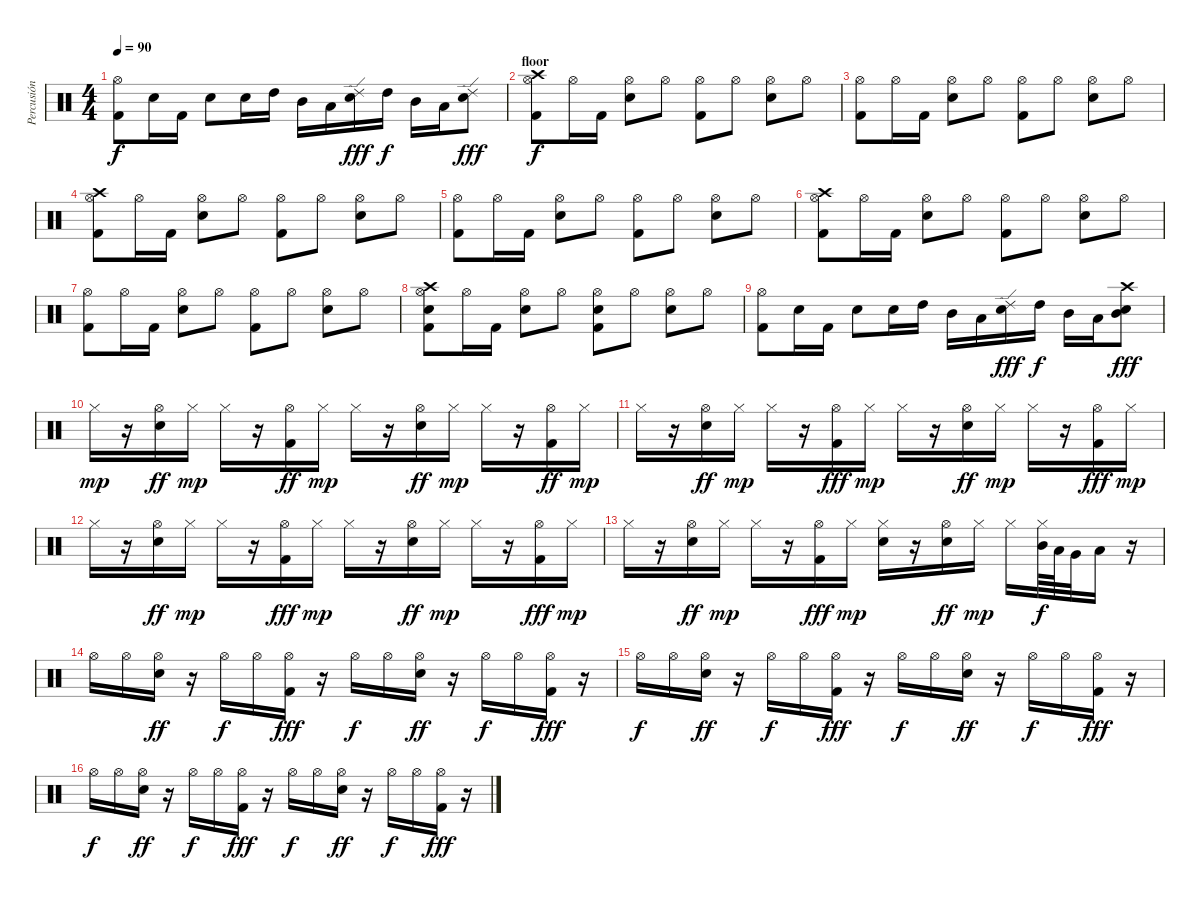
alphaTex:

\track ("Percusión" "Percusión") {instrument percussion}
\staff {score}
\articulation defaults
\ts (4 4)
\tempo 90
\clef neutral
\ks c
("Hi-Hat (open)" "Kick (hit) 2").8{dy f} "Electric Snare (hit)".16 "Kick (hit) 2".16 "Electric Snare (hit)".8 "Electric Snare (hit)".16 "High Tom (hit)".16 "Mid Tom (hit)".16 "Low Tom (hit)".16 ("Ride (edge) 2" "Electric Snare (hit)").16{dy fff} "High Tom (hit)".16{dy f} "Mid Tom (hit)".16 "Low Tom (hit)".16 ("Ride (edge) 2" "Electric Snare (hit)").8{dy fff} |
\section ("" "floor")
("Crash high (hit)" "Hi-Hat (open)" "Kick (hit) 2").8{dy f} "Hi-Hat (open)".16 "Kick (hit) 2".16 ("Hi-Hat (open)" "Electric Snare (hit)").8 "Hi-Hat (open)".8 ("Hi-Hat (open)" "Kick (hit) 2").8 "Hi-Hat (open)".8 ("Hi-Hat (open)" "Electric Snare (hit)").8 "Hi-Hat (open)".8 |
("Hi-Hat (open)" "Kick (hit) 2").8 "Hi-Hat (open)".16 "Kick (hit) 2".16 ("Hi-Hat (open)" "Electric Snare (hit)").8 "Hi-Hat (open)".8 ("Hi-Hat (open)" "Kick (hit) 2").8 "Hi-Hat (open)".8 ("Hi-Hat (open)" "Electric Snare (hit)").8 "Hi-Hat (open)".8 |
("Crash high (hit)" "Hi-Hat (open)" "Kick (hit) 2").8 "Hi-Hat (open)".16 "Kick (hit) 2".16 ("Hi-Hat (open)" "Electric Snare (hit)").8 "Hi-Hat (open)".8 ("Hi-Hat (open)" "Kick (hit) 2").8 "Hi-Hat (open)".8 ("Hi-Hat (open)" "Electric Snare (hit)").8 "Hi-Hat (open)".8 |
("Hi-Hat (open)" "Kick (hit) 2").8 "Hi-Hat (open)".16 "Kick (hit) 2".16 ("Hi-Hat (open)" "Electric Snare (hit)").8 "Hi-Hat (open)".8 ("Hi-Hat (open)" "Kick (hit) 2").8 "Hi-Hat (open)".8 ("Hi-Hat (open)" "Electric Snare (hit)").8 "Hi-Hat (open)".8 |
("Crash high (hit)" "Hi-Hat (open)" "Kick (hit) 2").8 "Hi-Hat (open)".16 "Kick (hit) 2".16 ("Hi-Hat (open)" "Electric Snare (hit)").8 "Hi-Hat (open)".8 ("Hi-Hat (open)" "Kick (hit) 2").8 "Hi-Hat (open)".8 ("Hi-Hat (open)" "Electric Snare (hit)").8 "Hi-Hat (open)".8 |
("Hi-Hat (open)" "Kick (hit) 2").8 "Hi-Hat (open)".16 "Kick (hit) 2".16 ("Hi-Hat (open)" "Electric Snare (hit)").8 "Hi-Hat (open)".8 ("Hi-Hat (open)" "Kick (hit) 2").8 "Hi-Hat (open)".8 ("Hi-Hat (open)" "Electric Snare (hit)").8 "Hi-Hat (open)".8 |
("Crash high (hit)" "Hi-Hat (open)" "Electric Snare (hit)" "Kick (hit) 2").8 "Hi-Hat (open)".16 "Kick (hit) 2".16 ("Hi-Hat (open)" "Electric Snare (hit)").8 "Hi-Hat (open)".8 ("Hi-Hat (open)" "Electric Snare (hit)" "Kick (hit) 2").8 "Hi-Hat (open)".8 ("Hi-Hat (open)" "Electric Snare (hit)").8 "Hi-Hat (open)".8 |
("Hi-Hat (open)" "Kick (hit) 2").8 "Electric Snare (hit)".16 "Kick (hit) 2".16 "Electric Snare (hit)".8 "Electric Snare (hit)".16 "High Tom (hit)".16 "Mid Tom (hit)".16 "Low Tom (hit)".16 ("Ride (edge) 2" "Electric Snare (hit)").16{dy fff} "High Tom (hit)".16{dy f} "Mid Tom (hit)".16 "Low Tom (hit)".16 ("Crash high (hit)" "Mid Tom (hit)" "Electric Snare (hit)").8{dy fff} |
"Hi-Hat (closed)".16{dy mp} r.16 ("Hi-Hat (open)" "Electric Snare (hit)").16{dy ff} "Hi-Hat (closed)".16{dy mp} "Hi-Hat (closed)".16 r.16 ("Hi-Hat (open)" "Kick (hit) 2").16{dy ff} "Hi-Hat (closed)".16{dy mp} "Hi-Hat (closed)".16 r.16 ("Hi-Hat (open)" "Electric Snare (hit)").16{dy ff} "Hi-Hat (closed)".16{dy mp} "Hi-Hat (closed)".16 r.16 ("Hi-Hat (open)" "Kick (hit) 2").16{dy ff} "Hi-Hat (closed)".16{dy mp} |
"Hi-Hat (closed)".16 r.16 ("Hi-Hat (open)" "Electric Snare (hit)").16{dy ff} "Hi-Hat (closed)".16{dy mp} "Hi-Hat (closed)".16 r.16 ("Hi-Hat (open)" "Kick (hit) 2").16{dy fff} "Hi-Hat (closed)".16{dy mp} "Hi-Hat (closed)".16 r.16 ("Hi-Hat (open)" "Electric Snare (hit)").16{dy ff} "Hi-Hat (closed)".16{dy mp} "Hi-Hat (closed)".16 r.16 ("Hi-Hat (open)" "Kick (hit) 2").16{dy fff} "Hi-Hat (closed)".16{dy mp} |
"Hi-Hat (closed)".16 r.16 ("Hi-Hat (open)" "Electric Snare (hit)").16{dy ff} "Hi-Hat (closed)".16{dy mp} "Hi-Hat (closed)".16 r.16 ("Hi-Hat (open)" "Kick (hit) 2").16{dy fff} "Hi-Hat (closed)".16{dy mp} "Hi-Hat (closed)".16 r.16 ("Hi-Hat (open)" "Electric Snare (hit)").16{dy ff} "Hi-Hat (closed)".16{dy mp} "Hi-Hat (closed)".16 r.16 ("Hi-Hat (open)" "Kick (hit) 2").16{dy fff} "Hi-Hat (closed)".16{dy mp} |
"Hi-Hat (closed)".16 r.16 ("Hi-Hat (open)" "Electric Snare (hit)").16{dy ff} "Hi-Hat (closed)".16{dy mp} "Hi-Hat (closed)".16 r.16 ("Hi-Hat (open)" "Kick (hit) 2").16{dy fff} "Hi-Hat (closed)".16{dy mp} ("Hi-Hat (closed)" "Electric Snare (hit)").16 r.16 ("Hi-Hat (open)" "Electric Snare (hit)").16{dy ff} "Hi-Hat (closed)".16{dy mp} "Hi-Hat (closed)".16 ("Hi-Hat (closed)" "Mid Tom (hit)").64{dy f} "Low Tom (hit)".64 "Very Low Tom (hit)".32 "Low Floor Tom (hit)".16 r.16 |
"Hi-Hat (open)".16 "Hi-Hat (open)".16 ("Hi-Hat (open)" "Electric Snare (hit)").16{dy ff} r.16 "Hi-Hat (open)".16{dy f} "Hi-Hat (open)".16 ("Hi-Hat (open)" "Kick (hit) 2").16{dy fff} r.16 "Hi-Hat (open)".16{dy f} "Hi-Hat (open)".16 ("Hi-Hat (open)" "Electric Snare (hit)").16{dy ff} r.16 "Hi-Hat (open)".16{dy f} "Hi-Hat (open)".16 ("Hi-Hat (open)" "Kick (hit) 2").16{dy fff} r.16 |
"Hi-Hat (open)".16{dy f} "Hi-Hat (open)".16 ("Hi-Hat (open)" "Electric Snare (hit)").16{dy ff} r.16 "Hi-Hat (open)".16{dy f} "Hi-Hat (open)".16 ("Hi-Hat (open)" "Kick (hit) 2").16{dy fff} r.16 "Hi-Hat (open)".16{dy f} "Hi-Hat (open)".16 ("Hi-Hat (open)" "Electric Snare (hit)").16{dy ff} r.16 "Hi-Hat (open)".16{dy f} "Hi-Hat (open)".16 ("Hi-Hat (open)" "Kick (hit) 2").16{dy fff} r.16 |
"Hi-Hat (open)".16{dy f} "Hi-Hat (open)".16 ("Hi-Hat (open)" "Electric Snare (hit)").16{dy ff} r.16 "Hi-Hat (open)".16{dy f} "Hi-Hat (open)".16 ("Hi-Hat (open)" "Kick (hit) 2").16{dy fff} r.16 "Hi-Hat (open)".16{dy f} "Hi-Hat (open)".16 ("Hi-Hat (open)" "Electric Snare (hit)").16{dy ff} r.16 "Hi-Hat (open)".16{dy f} "Hi-Hat (open)".16 ("Hi-Hat (open)" "Kick (hit) 2").16{dy fff} r.16
